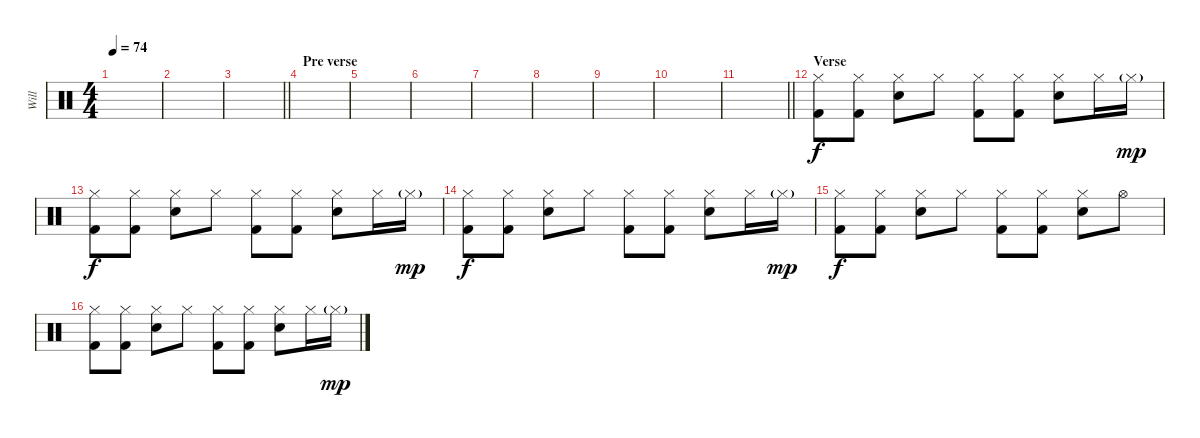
\track ("Will" "Will") {instrument percussion}
\staff {score}
\articulation defaults
\ts (4 4)
\tempo 74
\clef neutral
\ks c
|
|
\barLineRight lightlight
|
\section ("" "Pre verse")
|
|
|
|
|
|
|
\barLineRight lightlight
|
\section ("" "Verse")
("Hi-Hat (closed)" "Kick (hit) 2").8 ("Hi-Hat (closed)" "Kick (hit) 2").8 ("Hi-Hat (closed)" "Electric Snare (hit)").8 "Hi-Hat (closed)".8 ("Hi-Hat (closed)" "Kick (hit) 2").8 ("Hi-Hat (closed)" "Kick (hit) 2").8 ("Hi-Hat (closed)" "Electric Snare (hit)").8 "Hi-Hat (closed)".16 "Hi-Hat (closed)"{g}.16{dy mp} |
("Hi-Hat (closed)" "Kick (hit) 2").8{dy f} ("Hi-Hat (closed)" "Kick (hit) 2").8 ("Hi-Hat (closed)" "Electric Snare (hit)").8 "Hi-Hat (closed)".8 ("Hi-Hat (closed)" "Kick (hit) 2").8 ("Hi-Hat (closed)" "Kick (hit) 2").8 ("Hi-Hat (closed)" "Electric Snare (hit)").8 "Hi-Hat (closed)".16 "Hi-Hat (closed)"{g}.16{dy mp} |
("Hi-Hat (closed)" "Kick (hit) 2").8{dy f} ("Hi-Hat (closed)" "Kick (hit) 2").8 ("Hi-Hat (closed)" "Electric Snare (hit)").8 "Hi-Hat (closed)".8 ("Hi-Hat (closed)" "Kick (hit) 2").8 ("Hi-Hat (closed)" "Kick (hit) 2").8 ("Hi-Hat (closed)" "Electric Snare (hit)").8 "Hi-Hat (closed)".16 "Hi-Hat (closed)"{g}.16{dy mp} |
("Hi-Hat (closed)" "Kick (hit) 2").8{dy f} ("Hi-Hat (closed)" "Kick (hit) 2").8 ("Hi-Hat (closed)" "Electric Snare (hit)").8 "Hi-Hat (closed)".8 ("Hi-Hat (closed)" "Kick (hit) 2").8 ("Hi-Hat (closed)" "Kick (hit) 2").8 ("Hi-Hat (closed)" "Electric Snare (hit)").8 "Hi-Hat (open)".8 |
("Hi-Hat (closed)" "Kick (hit) 2").8 ("Hi-Hat (closed)" "Kick (hit) 2").8 ("Hi-Hat (closed)" "Electric Snare (hit)").8 "Hi-Hat (closed)".8 ("Hi-Hat (closed)" "Kick (hit) 2").8 ("Hi-Hat (closed)" "Kick (hit) 2").8 ("Hi-Hat (closed)" "Electric Snare (hit)").8 "Hi-Hat (closed)".16 "Hi-Hat (closed)"{g}.16{dy mp}
